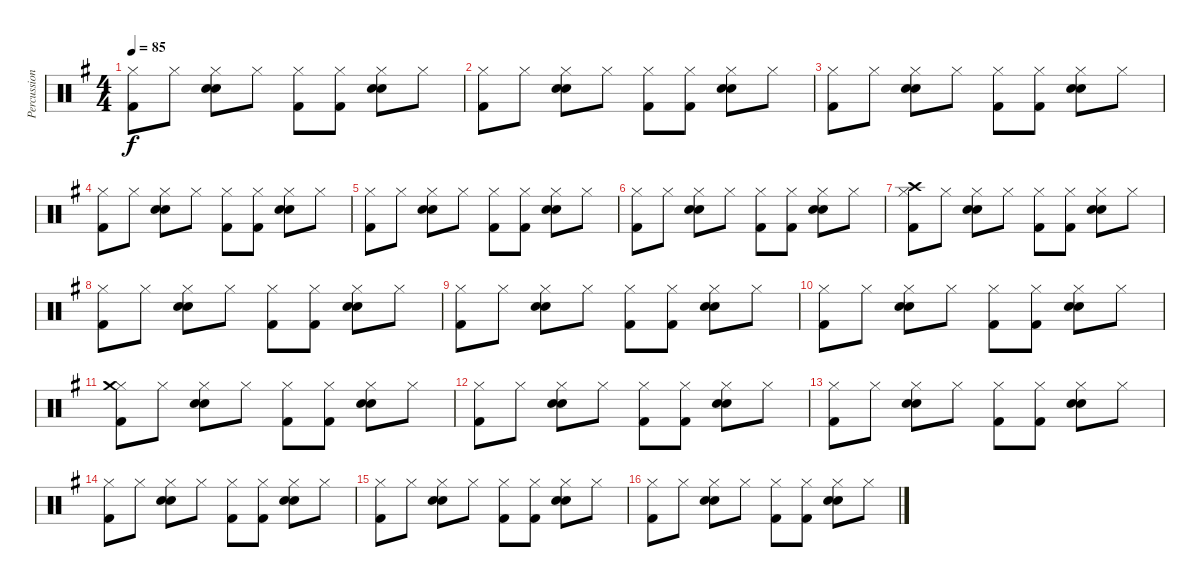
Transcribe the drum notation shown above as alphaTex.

\track ("Percussions" "Percussion") {instrument percussion}
\staff {score}
\articulation defaults
\ts (4 4)
\tempo 85
\clef neutral
\ks g
("Hi-Hat (closed)" "Kick (hit) 2").8{dy f} "Hi-Hat (closed)".8 ("Hi-Hat (closed)" "Hand Clap (hit)" "Snare (hit) 2").8 "Hi-Hat (closed)".8 ("Hi-Hat (closed)" "Kick (hit) 2").8 ("Hi-Hat (closed)" "Kick (hit) 2").8 ("Hi-Hat (closed)" "Hand Clap (hit)" "Snare (hit) 2").8 "Hi-Hat (closed)".8 |
("Hi-Hat (closed)" "Kick (hit) 2").8 "Hi-Hat (closed)".8 ("Hi-Hat (closed)" "Hand Clap (hit)" "Snare (hit) 2").8 "Hi-Hat (closed)".8 ("Hi-Hat (closed)" "Kick (hit) 2").8 ("Hi-Hat (closed)" "Kick (hit) 2").8 ("Hi-Hat (closed)" "Hand Clap (hit)" "Snare (hit) 2").8 "Hi-Hat (closed)".8 |
("Hi-Hat (closed)" "Kick (hit) 2").8 "Hi-Hat (closed)".8 ("Hi-Hat (closed)" "Hand Clap (hit)" "Snare (hit) 2").8 "Hi-Hat (closed)".8 ("Hi-Hat (closed)" "Kick (hit) 2").8 ("Hi-Hat (closed)" "Kick (hit) 2").8 ("Hi-Hat (closed)" "Hand Clap (hit)" "Snare (hit) 2").8 "Hi-Hat (closed)".8 |
("Hi-Hat (closed)" "Kick (hit) 2").8 "Hi-Hat (closed)".8 ("Hi-Hat (closed)" "Hand Clap (hit)" "Snare (hit) 2").8 "Hi-Hat (closed)".8 ("Hi-Hat (closed)" "Kick (hit) 2").8 ("Hi-Hat (closed)" "Kick (hit) 2").8 ("Hi-Hat (closed)" "Hand Clap (hit)" "Snare (hit) 2").8 "Hi-Hat (closed)".8 |
("Hi-Hat (closed)" "Kick (hit) 2").8 "Hi-Hat (closed)".8 ("Hi-Hat (closed)" "Hand Clap (hit)" "Snare (hit) 2").8 "Hi-Hat (closed)".8 ("Hi-Hat (closed)" "Kick (hit) 2").8 ("Hi-Hat (closed)" "Kick (hit) 2").8 ("Hi-Hat (closed)" "Hand Clap (hit)" "Snare (hit) 2").8 "Hi-Hat (closed)".8 |
("Hi-Hat (closed)" "Kick (hit) 2").8 "Hi-Hat (closed)".8 ("Hi-Hat (closed)" "Hand Clap (hit)" "Snare (hit) 2").8 "Hi-Hat (closed)".8 ("Hi-Hat (closed)" "Kick (hit) 2").8 ("Hi-Hat (closed)" "Kick (hit) 2").8 ("Hi-Hat (closed)" "Hand Clap (hit)" "Snare (hit) 2").8 "Hi-Hat (closed)".8 |
("Hi-Hat (closed)" "Crash high (hit)" "Kick (hit) 2").8 "Hi-Hat (closed)".8 ("Hi-Hat (closed)" "Hand Clap (hit)" "Snare (hit) 2").8 "Hi-Hat (closed)".8 ("Hi-Hat (closed)" "Kick (hit) 2").8 ("Hi-Hat (closed)" "Kick (hit) 2").8 ("Hi-Hat (closed)" "Hand Clap (hit)" "Snare (hit) 2").8 "Hi-Hat (closed)".8 |
("Hi-Hat (closed)" "Kick (hit) 2").8 "Hi-Hat (closed)".8 ("Hi-Hat (closed)" "Hand Clap (hit)" "Snare (hit) 2").8 "Hi-Hat (closed)".8 ("Hi-Hat (closed)" "Kick (hit) 2").8 ("Hi-Hat (closed)" "Kick (hit) 2").8 ("Hi-Hat (closed)" "Hand Clap (hit)" "Snare (hit) 2").8 "Hi-Hat (closed)".8 |
("Hi-Hat (closed)" "Kick (hit) 2").8 "Hi-Hat (closed)".8 ("Hi-Hat (closed)" "Hand Clap (hit)" "Snare (hit) 2").8 "Hi-Hat (closed)".8 ("Hi-Hat (closed)" "Kick (hit) 2").8 ("Hi-Hat (closed)" "Kick (hit) 2").8 ("Hi-Hat (closed)" "Hand Clap (hit)" "Snare (hit) 2").8 "Hi-Hat (closed)".8 |
("Hi-Hat (closed)" "Kick (hit) 2").8 "Hi-Hat (closed)".8 ("Hi-Hat (closed)" "Hand Clap (hit)" "Snare (hit) 2").8 "Hi-Hat (closed)".8 ("Hi-Hat (closed)" "Kick (hit) 2").8 ("Hi-Hat (closed)" "Kick (hit) 2").8 ("Hi-Hat (closed)" "Hand Clap (hit)" "Snare (hit) 2").8 "Hi-Hat (closed)".8 |
("Hi-Hat (closed)" "Crash medium (hit)" "Kick (hit) 2").8 "Hi-Hat (closed)".8 ("Hi-Hat (closed)" "Hand Clap (hit)" "Snare (hit) 2").8 "Hi-Hat (closed)".8 ("Hi-Hat (closed)" "Kick (hit) 2").8 ("Hi-Hat (closed)" "Kick (hit) 2").8 ("Hi-Hat (closed)" "Hand Clap (hit)" "Snare (hit) 2").8 "Hi-Hat (closed)".8 |
("Hi-Hat (closed)" "Kick (hit) 2").8 "Hi-Hat (closed)".8 ("Hi-Hat (closed)" "Hand Clap (hit)" "Snare (hit) 2").8 "Hi-Hat (closed)".8 ("Hi-Hat (closed)" "Kick (hit) 2").8 ("Hi-Hat (closed)" "Kick (hit) 2").8 ("Hi-Hat (closed)" "Hand Clap (hit)" "Snare (hit) 2").8 "Hi-Hat (closed)".8 |
("Hi-Hat (closed)" "Kick (hit) 2").8 "Hi-Hat (closed)".8 ("Hi-Hat (closed)" "Hand Clap (hit)" "Snare (hit) 2").8 "Hi-Hat (closed)".8 ("Hi-Hat (closed)" "Kick (hit) 2").8 ("Hi-Hat (closed)" "Kick (hit) 2").8 ("Hi-Hat (closed)" "Hand Clap (hit)" "Snare (hit) 2").8 "Hi-Hat (closed)".8 |
("Hi-Hat (closed)" "Kick (hit) 2").8 "Hi-Hat (closed)".8 ("Hi-Hat (closed)" "Hand Clap (hit)" "Snare (hit) 2").8 "Hi-Hat (closed)".8 ("Hi-Hat (closed)" "Kick (hit) 2").8 ("Hi-Hat (closed)" "Kick (hit) 2").8 ("Hi-Hat (closed)" "Hand Clap (hit)" "Snare (hit) 2").8 "Hi-Hat (closed)".8 |
("Hi-Hat (closed)" "Kick (hit) 2").8 "Hi-Hat (closed)".8 ("Hi-Hat (closed)" "Hand Clap (hit)" "Snare (hit) 2").8 "Hi-Hat (closed)".8 ("Hi-Hat (closed)" "Kick (hit) 2").8 ("Hi-Hat (closed)" "Kick (hit) 2").8 ("Hi-Hat (closed)" "Hand Clap (hit)" "Snare (hit) 2").8 "Hi-Hat (closed)".8 |
("Hi-Hat (closed)" "Kick (hit) 2").8 "Hi-Hat (closed)".8 ("Hi-Hat (closed)" "Hand Clap (hit)" "Snare (hit) 2").8 "Hi-Hat (closed)".8 ("Hi-Hat (closed)" "Kick (hit) 2").8 ("Hi-Hat (closed)" "Kick (hit) 2").8 ("Hi-Hat (closed)" "Hand Clap (hit)" "Snare (hit) 2").8 "Hi-Hat (closed)".8
